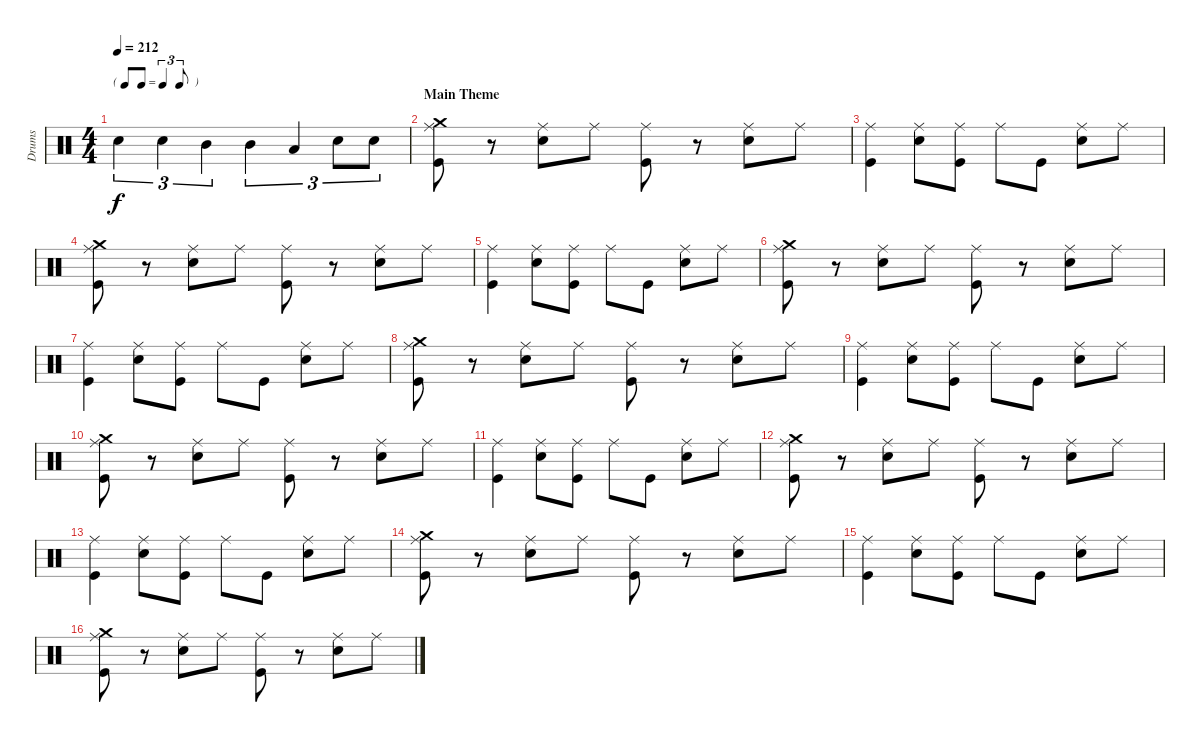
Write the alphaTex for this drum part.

\track ("Drums" "Drums") {instrument percussion}
\staff {score}
\articulation defaults
\ts (4 4)
\tf triplet8th
\tempo 212
\clef neutral
\ks c "Electric Snare (hit)".4{tu (3 2) dy f} "Electric Snare (hit)".4{tu (3 2)} "Mid Tom (hit)".4{tu (3 2)} "Mid Tom (hit)".4{tu (3 2)} "Low Tom (hit)".4{tu (3 2)} "Electric Snare (hit)".8{tu (3 2)} "Electric Snare (hit)".8{tu (3 2)}
|
\section ("" "Main Theme")
("Crash medium (hit)" "Ride (middle)" "Kick (hit)").8 r.8 ("Ride (middle)" "Electric Snare (hit)").8 "Ride (middle)".8 ("Ride (middle)" "Kick (hit)").8 r.8 ("Ride (middle)" "Electric Snare (hit)").8 "Ride (middle)".8 |
("Ride (middle)" "Kick (hit)").4 ("Ride (middle)" "Electric Snare (hit)").8 ("Ride (middle)" "Kick (hit)").8 "Ride (middle)".8 "Kick (hit)".8 ("Ride (middle)" "Electric Snare (hit)").8 "Ride (middle)".8 |
("Crash medium (hit)" "Ride (middle)" "Kick (hit)").8 r.8 ("Ride (middle)" "Electric Snare (hit)").8 "Ride (middle)".8 ("Ride (middle)" "Kick (hit)").8 r.8 ("Ride (middle)" "Electric Snare (hit)").8 "Ride (middle)".8 |
("Ride (middle)" "Kick (hit)").4 ("Ride (middle)" "Electric Snare (hit)").8 ("Ride (middle)" "Kick (hit)").8 "Ride (middle)".8 "Kick (hit)".8 ("Ride (middle)" "Electric Snare (hit)").8 "Ride (middle)".8 |
("Crash medium (hit)" "Ride (middle)" "Kick (hit)").8 r.8 ("Ride (middle)" "Electric Snare (hit)").8 "Ride (middle)".8 ("Ride (middle)" "Kick (hit)").8 r.8 ("Ride (middle)" "Electric Snare (hit)").8 "Ride (middle)".8 |
("Ride (middle)" "Kick (hit)").4 ("Ride (middle)" "Electric Snare (hit)").8 ("Ride (middle)" "Kick (hit)").8 "Ride (middle)".8 "Kick (hit)".8 ("Ride (middle)" "Electric Snare (hit)").8 "Ride (middle)".8 |
("Crash medium (hit)" "Ride (middle)" "Kick (hit)").8 r.8 ("Ride (middle)" "Electric Snare (hit)").8 "Ride (middle)".8 ("Ride (middle)" "Kick (hit)").8 r.8 ("Ride (middle)" "Electric Snare (hit)").8 "Ride (middle)".8 |
("Ride (middle)" "Kick (hit)").4 ("Ride (middle)" "Electric Snare (hit)").8 ("Ride (middle)" "Kick (hit)").8 "Ride (middle)".8 "Kick (hit)".8 ("Ride (middle)" "Electric Snare (hit)").8 "Ride (middle)".8 |
("Crash medium (hit)" "Ride (middle)" "Kick (hit)").8 r.8 ("Ride (middle)" "Electric Snare (hit)").8 "Ride (middle)".8 ("Ride (middle)" "Kick (hit)").8 r.8 ("Ride (middle)" "Electric Snare (hit)").8 "Ride (middle)".8 |
("Ride (middle)" "Kick (hit)").4 ("Ride (middle)" "Electric Snare (hit)").8 ("Ride (middle)" "Kick (hit)").8 "Ride (middle)".8 "Kick (hit)".8 ("Ride (middle)" "Electric Snare (hit)").8 "Ride (middle)".8 |
("Crash medium (hit)" "Ride (middle)" "Kick (hit)").8 r.8 ("Ride (middle)" "Electric Snare (hit)").8 "Ride (middle)".8 ("Ride (middle)" "Kick (hit)").8 r.8 ("Ride (middle)" "Electric Snare (hit)").8 "Ride (middle)".8 |
("Ride (middle)" "Kick (hit)").4 ("Ride (middle)" "Electric Snare (hit)").8 ("Ride (middle)" "Kick (hit)").8 "Ride (middle)".8 "Kick (hit)".8 ("Ride (middle)" "Electric Snare (hit)").8 "Ride (middle)".8 |
("Crash medium (hit)" "Ride (middle)" "Kick (hit)").8 r.8 ("Ride (middle)" "Electric Snare (hit)").8 "Ride (middle)".8 ("Ride (middle)" "Kick (hit)").8 r.8 ("Ride (middle)" "Electric Snare (hit)").8 "Ride (middle)".8 |
("Ride (middle)" "Kick (hit)").4 ("Ride (middle)" "Electric Snare (hit)").8 ("Ride (middle)" "Kick (hit)").8 "Ride (middle)".8 "Kick (hit)".8 ("Ride (middle)" "Electric Snare (hit)").8 "Ride (middle)".8 |
("Crash medium (hit)" "Ride (middle)" "Kick (hit)").8 r.8 ("Ride (middle)" "Electric Snare (hit)").8 "Ride (middle)".8 ("Ride (middle)" "Kick (hit)").8 r.8 ("Ride (middle)" "Electric Snare (hit)").8 "Ride (middle)".8
